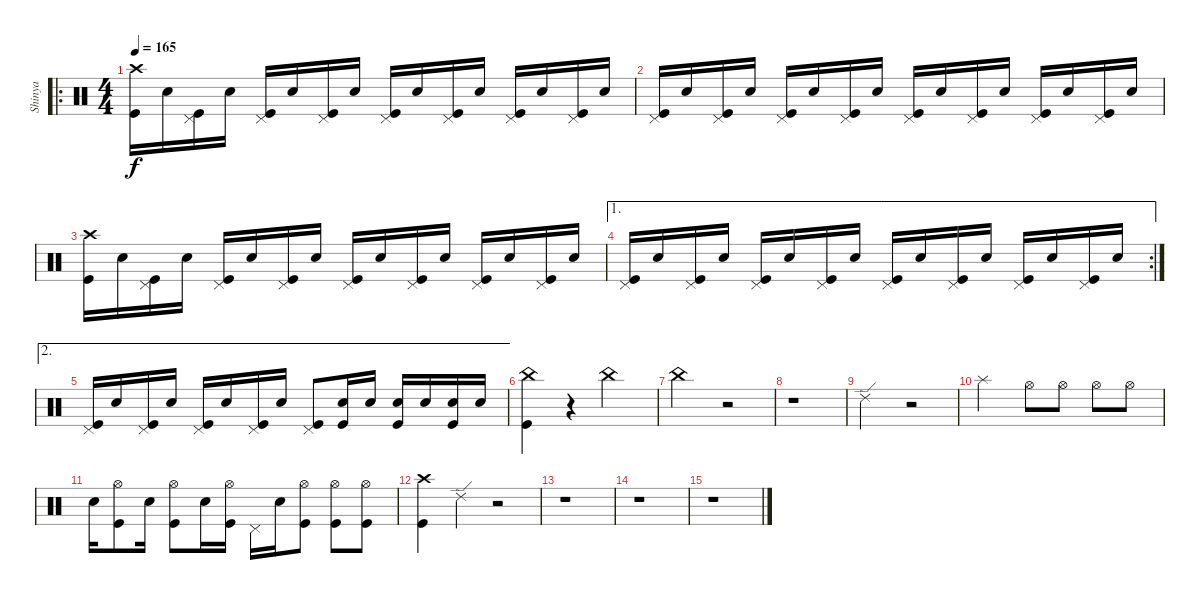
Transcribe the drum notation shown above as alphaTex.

\track ("Shinya" "Shinya") {instrument percussion}
\staff {score}
\articulation defaults
\ro
\ts (4 4)
\tempo 165
\clef neutral
\ks c
("Crash high (hit)" "Kick (hit)").16{dy f} "Electric Snare (hit)".16 ("Pedal Hi-Hat (hit)" "Kick (hit)").16 "Electric Snare (hit)".16 ("Kick (hit)" "Pedal Hi-Hat (hit)").16 "Electric Snare (hit)".16 ("Kick (hit)" "Pedal Hi-Hat (hit)").16 "Electric Snare (hit)".16 ("Kick (hit)" "Pedal Hi-Hat (hit)").16 "Electric Snare (hit)".16 ("Kick (hit)" "Pedal Hi-Hat (hit)").16 "Electric Snare (hit)".16 ("Pedal Hi-Hat (hit)" "Kick (hit)").16 "Electric Snare (hit)".16 ("Kick (hit)" "Pedal Hi-Hat (hit)").16 "Electric Snare (hit)".16 |
("Pedal Hi-Hat (hit)" "Kick (hit)").16 "Electric Snare (hit)".16 ("Pedal Hi-Hat (hit)" "Kick (hit)").16 "Electric Snare (hit)".16 ("Kick (hit)" "Pedal Hi-Hat (hit)").16 "Electric Snare (hit)".16 ("Kick (hit)" "Pedal Hi-Hat (hit)").16 "Electric Snare (hit)".16 ("Kick (hit)" "Pedal Hi-Hat (hit)").16 "Electric Snare (hit)".16 ("Kick (hit)" "Pedal Hi-Hat (hit)").16 "Electric Snare (hit)".16 ("Pedal Hi-Hat (hit)" "Kick (hit)").16 "Electric Snare (hit)".16 ("Kick (hit)" "Pedal Hi-Hat (hit)").16 "Electric Snare (hit)".16 |
("Crash high (hit)" "Kick (hit)").16 "Electric Snare (hit)".16 ("Pedal Hi-Hat (hit)" "Kick (hit)").16 "Electric Snare (hit)".16 ("Kick (hit)" "Pedal Hi-Hat (hit)").16 "Electric Snare (hit)".16 ("Kick (hit)" "Pedal Hi-Hat (hit)").16 "Electric Snare (hit)".16 ("Kick (hit)" "Pedal Hi-Hat (hit)").16 "Electric Snare (hit)".16 ("Kick (hit)" "Pedal Hi-Hat (hit)").16 "Electric Snare (hit)".16 ("Pedal Hi-Hat (hit)" "Kick (hit)").16 "Electric Snare (hit)".16 ("Kick (hit)" "Pedal Hi-Hat (hit)").16 "Electric Snare (hit)".16 |
\ae 1
\rc 2
("Pedal Hi-Hat (hit)" "Kick (hit)").16 "Electric Snare (hit)".16 ("Pedal Hi-Hat (hit)" "Kick (hit)").16 "Electric Snare (hit)".16 ("Kick (hit)" "Pedal Hi-Hat (hit)").16 "Electric Snare (hit)".16 ("Kick (hit)" "Pedal Hi-Hat (hit)").16 "Electric Snare (hit)".16 ("Kick (hit)" "Pedal Hi-Hat (hit)").16 "Electric Snare (hit)".16 ("Kick (hit)" "Pedal Hi-Hat (hit)").16 "Electric Snare (hit)".16 ("Pedal Hi-Hat (hit)" "Kick (hit)").16 "Electric Snare (hit)".16 ("Kick (hit)" "Pedal Hi-Hat (hit)").16 "Electric Snare (hit)".16 |
\ae 2
("Pedal Hi-Hat (hit)" "Kick (hit)").16 "Electric Snare (hit)".16 ("Kick (hit)" "Pedal Hi-Hat (hit)").16 "Electric Snare (hit)".16 ("Kick (hit)" "Pedal Hi-Hat (hit)").16 "Electric Snare (hit)".16 ("Pedal Hi-Hat (hit)" "Kick (hit)").16 "Electric Snare (hit)".16 ("Kick (hit)" "Pedal Hi-Hat (hit)").8 ("Electric Snare (hit)" "Kick (hit)").16 "Electric Snare (hit)".16 ("Kick (hit)" "Electric Snare (hit)").16 "Electric Snare (hit)".16 ("Electric Snare (hit)" "Kick (hit)").16 "Electric Snare (hit)".16 |
("Kick (hit)" "China (hit)").4 r.4 "China (hit)".2 |
"China (hit)".2 r.2 |
r.1 |
"Ride (edge) 2".2 r.2 |
"Splash (hit)".2 "Hi-Hat (open)".8 "Hi-Hat (open)".8 "Hi-Hat (open)".8 "Hi-Hat (open)".8 |
"Electric Snare (hit)".16 ("Hi-Hat (open)" "Kick (hit)").8 "Electric Snare (hit)".16 ("Hi-Hat (open)" "Kick (hit)").8 "Electric Snare (hit)".16 ("Kick (hit)" "Hi-Hat (open)").16 "Pedal Hi-Hat (hit)".16 "Electric Snare (hit)".16 ("Kick (hit)" "Hi-Hat (open)").8 ("Hi-Hat (open)" "Kick (hit)").8 ("Hi-Hat (open)" "Kick (hit)").8 |
("Kick (hit)" "Crash high (hit)").4 "Ride (edge) 2".4 r.2 |
r.1 |
r.1 |
r.1
